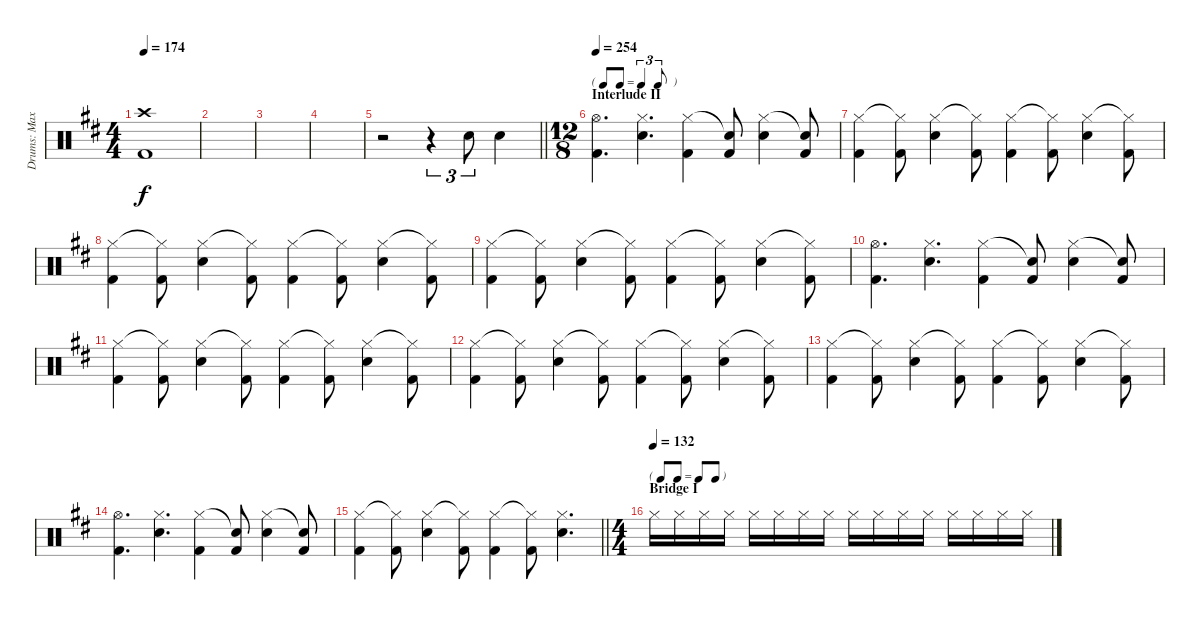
\track ("Drums: Max" "Drums: Max") {instrument percussion}
\staff {score}
\articulation defaults
\ts (4 4)
\tempo 174
\clef neutral
\ks d
("Crash high (hit)" "Kick (hit) 2").1{dy f} |
|
|
|
\barLineRight lightlight
r.2 r.4{tu (3 2)} "Electric Snare (hit)".8{tu (3 2)} "Electric Snare (hit)".4 |
\ts (12 8)
\tf triplet8th
\section ("" "Interlude II")
\tempo 254
("Hi-Hat (open)" "Kick (hit) 2").4{d} ("Hi-Hat (closed)" "Electric Snare (hit)").4{d} ("Hi-Hat (closed)" "Kick (hit) 2").4 ("Snare (hit)"{t} "Kick (hit) 2").8 ("Hi-Hat (closed)" "Electric Snare (hit)").4 ("Snare (hit)"{t} "Kick (hit) 2").8 |
("Hi-Hat (closed)" "Kick (hit) 2").4 ("Hi-Hat (closed)"{t} "Kick (hit) 2").8 ("Hi-Hat (closed)" "Electric Snare (hit)").4 ("Hi-Hat (closed)"{t} "Kick (hit) 2").8 ("Hi-Hat (closed)" "Kick (hit) 2").4 ("Hi-Hat (closed)"{t} "Kick (hit) 2").8 ("Hi-Hat (closed)" "Electric Snare (hit)").4 ("Hi-Hat (closed)"{t} "Kick (hit) 2").8 |
("Hi-Hat (closed)" "Kick (hit) 2").4 ("Hi-Hat (closed)"{t} "Kick (hit) 2").8 ("Hi-Hat (closed)" "Electric Snare (hit)").4 ("Hi-Hat (closed)"{t} "Kick (hit) 2").8 ("Hi-Hat (closed)" "Kick (hit) 2").4 ("Hi-Hat (closed)"{t} "Kick (hit) 2").8 ("Hi-Hat (closed)" "Electric Snare (hit)").4 ("Hi-Hat (closed)"{t} "Kick (hit) 2").8 |
("Hi-Hat (closed)" "Kick (hit) 2").4 ("Hi-Hat (closed)"{t} "Kick (hit) 2").8 ("Hi-Hat (closed)" "Electric Snare (hit)").4 ("Hi-Hat (closed)"{t} "Kick (hit) 2").8 ("Hi-Hat (closed)" "Kick (hit) 2").4 ("Hi-Hat (closed)"{t} "Kick (hit) 2").8 ("Hi-Hat (closed)" "Electric Snare (hit)").4 ("Hi-Hat (closed)"{t} "Kick (hit) 2").8 |
("Hi-Hat (open)" "Kick (hit) 2").4{d} ("Hi-Hat (closed)" "Electric Snare (hit)").4{d} ("Hi-Hat (closed)" "Kick (hit) 2").4 ("Snare (hit)"{t} "Kick (hit) 2").8 ("Hi-Hat (closed)" "Electric Snare (hit)").4 ("Snare (hit)"{t} "Kick (hit) 2").8 |
("Hi-Hat (closed)" "Kick (hit) 2").4 ("Hi-Hat (closed)"{t} "Kick (hit) 2").8 ("Hi-Hat (closed)" "Electric Snare (hit)").4 ("Hi-Hat (closed)"{t} "Kick (hit) 2").8 ("Hi-Hat (closed)" "Kick (hit) 2").4 ("Hi-Hat (closed)"{t} "Kick (hit) 2").8 ("Hi-Hat (closed)" "Electric Snare (hit)").4 ("Hi-Hat (closed)"{t} "Kick (hit) 2").8 |
("Hi-Hat (closed)" "Kick (hit) 2").4 ("Hi-Hat (closed)"{t} "Kick (hit) 2").8 ("Hi-Hat (closed)" "Electric Snare (hit)").4 ("Hi-Hat (closed)"{t} "Kick (hit) 2").8 ("Hi-Hat (closed)" "Kick (hit) 2").4 ("Hi-Hat (closed)"{t} "Kick (hit) 2").8 ("Hi-Hat (closed)" "Electric Snare (hit)").4 ("Hi-Hat (closed)"{t} "Kick (hit) 2").8 |
("Hi-Hat (closed)" "Kick (hit) 2").4 ("Hi-Hat (closed)"{t} "Kick (hit) 2").8 ("Hi-Hat (closed)" "Electric Snare (hit)").4 ("Hi-Hat (closed)"{t} "Kick (hit) 2").8 ("Hi-Hat (closed)" "Kick (hit) 2").4 ("Hi-Hat (closed)"{t} "Kick (hit) 2").8 ("Hi-Hat (closed)" "Electric Snare (hit)").4 ("Hi-Hat (closed)"{t} "Kick (hit) 2").8 |
("Hi-Hat (open)" "Kick (hit) 2").4{d} ("Hi-Hat (closed)" "Electric Snare (hit)").4{d} ("Hi-Hat (closed)" "Kick (hit) 2").4 ("Snare (hit)"{t} "Kick (hit) 2").8 ("Hi-Hat (closed)" "Electric Snare (hit)").4 ("Snare (hit)"{t} "Kick (hit) 2").8 |
\barLineRight lightlight
("Hi-Hat (closed)" "Kick (hit) 2").4 ("Hi-Hat (closed)"{t} "Kick (hit) 2").8 ("Hi-Hat (closed)" "Electric Snare (hit)").4 ("Hi-Hat (closed)"{t} "Kick (hit) 2").8 ("Hi-Hat (closed)" "Kick (hit) 2").4 ("Hi-Hat (closed)"{t} "Kick (hit) 2").8 ("Hi-Hat (closed)" "Electric Snare (hit)").4{d} |
\ts (4 4)
\tf none
\section ("" "Bridge I")
\tempo (132)
"Hi-Hat (closed)".16 "Hi-Hat (closed)".16 "Hi-Hat (closed)".16 "Hi-Hat (closed)".16 "Hi-Hat (closed)".16 "Hi-Hat (closed)".16 "Hi-Hat (closed)".16 "Hi-Hat (closed)".16 "Hi-Hat (closed)".16 "Hi-Hat (closed)".16 "Hi-Hat (closed)".16 "Hi-Hat (closed)".16 "Hi-Hat (closed)".16 "Hi-Hat (closed)".16 "Hi-Hat (closed)".16 "Hi-Hat (closed)".16
